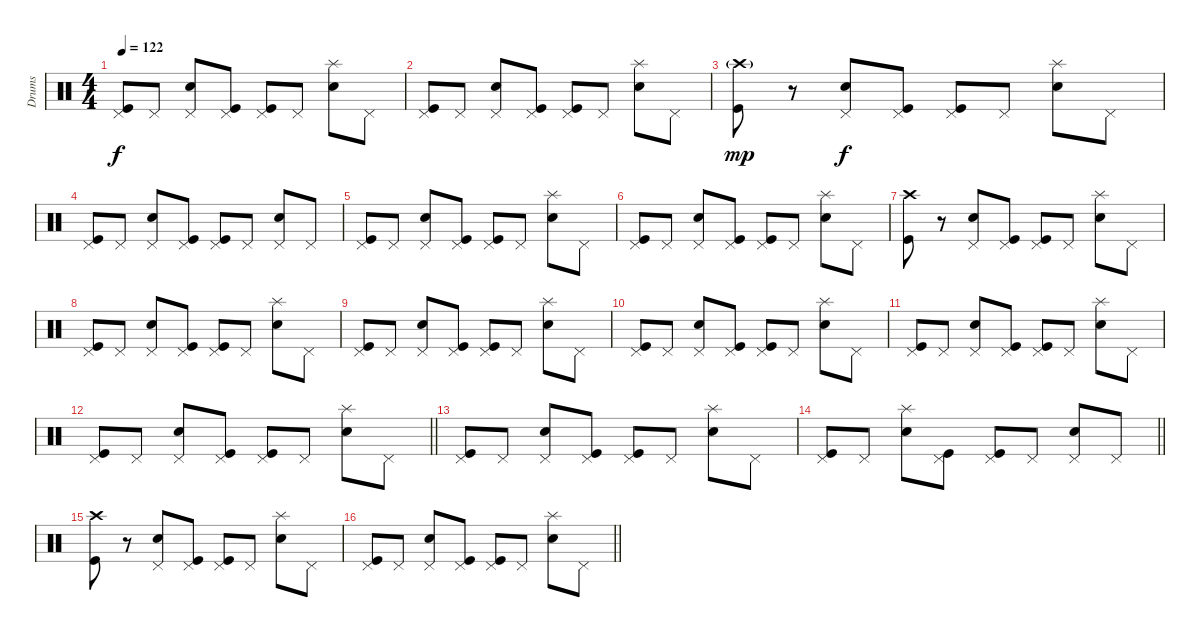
\track ("Drums" "Drums") {instrument percussion}
\staff {score}
\articulation defaults
\ts (4 4)
\tempo 122
\clef neutral
\ks c
("Pedal Hi-Hat (hit)" "Kick (hit)").8{dy f} "Pedal Hi-Hat (hit)".8 ("Pedal Hi-Hat (hit)" "Electric Snare (hit)").8 ("Pedal Hi-Hat (hit)" "Kick (hit)").8 ("Pedal Hi-Hat (hit)" "Kick (hit)").8 "Pedal Hi-Hat (hit)".8 ("Splash (hit)" "Electric Snare (hit)").8 "Pedal Hi-Hat (hit)".8 |
("Pedal Hi-Hat (hit)" "Kick (hit)").8 "Pedal Hi-Hat (hit)".8 ("Pedal Hi-Hat (hit)" "Electric Snare (hit)").8 ("Pedal Hi-Hat (hit)" "Kick (hit)").8 ("Pedal Hi-Hat (hit)" "Kick (hit)").8 "Pedal Hi-Hat (hit)".8 ("Splash (hit)" "Electric Snare (hit)").8 "Pedal Hi-Hat (hit)".8 |
("Crash high (hit)"{g} "Kick (hit)").8{dy mp} r.8 ("Pedal Hi-Hat (hit)" "Electric Snare (hit)").8{dy f} ("Pedal Hi-Hat (hit)" "Kick (hit)").8 ("Pedal Hi-Hat (hit)" "Kick (hit)").8 "Pedal Hi-Hat (hit)".8 ("Splash (hit)" "Electric Snare (hit)").8 "Pedal Hi-Hat (hit)".8 |
("Pedal Hi-Hat (hit)" "Kick (hit)").8 "Pedal Hi-Hat (hit)".8 ("Pedal Hi-Hat (hit)" "Electric Snare (hit)").8 ("Pedal Hi-Hat (hit)" "Kick (hit)").8 ("Pedal Hi-Hat (hit)" "Kick (hit)").8 "Pedal Hi-Hat (hit)".8 ("Pedal Hi-Hat (hit)" "Electric Snare (hit)").8 "Pedal Hi-Hat (hit)".8 |
("Pedal Hi-Hat (hit)" "Kick (hit)").8 "Pedal Hi-Hat (hit)".8 ("Pedal Hi-Hat (hit)" "Electric Snare (hit)").8 ("Pedal Hi-Hat (hit)" "Kick (hit)").8 ("Pedal Hi-Hat (hit)" "Kick (hit)").8 "Pedal Hi-Hat (hit)".8 ("Splash (hit)" "Electric Snare (hit)").8 "Pedal Hi-Hat (hit)".8 |
("Pedal Hi-Hat (hit)" "Kick (hit)").8 "Pedal Hi-Hat (hit)".8 ("Pedal Hi-Hat (hit)" "Electric Snare (hit)").8 ("Pedal Hi-Hat (hit)" "Kick (hit)").8 ("Pedal Hi-Hat (hit)" "Kick (hit)").8 "Pedal Hi-Hat (hit)".8 ("Splash (hit)" "Electric Snare (hit)").8 "Pedal Hi-Hat (hit)".8 |
("Crash high (hit)" "Kick (hit)").8 r.8 ("Pedal Hi-Hat (hit)" "Electric Snare (hit)").8 ("Pedal Hi-Hat (hit)" "Kick (hit)").8 ("Pedal Hi-Hat (hit)" "Kick (hit)").8 "Pedal Hi-Hat (hit)".8 ("Splash (hit)" "Electric Snare (hit)").8 "Pedal Hi-Hat (hit)".8 |
("Pedal Hi-Hat (hit)" "Kick (hit)").8 "Pedal Hi-Hat (hit)".8 ("Pedal Hi-Hat (hit)" "Electric Snare (hit)").8 ("Pedal Hi-Hat (hit)" "Kick (hit)").8 ("Pedal Hi-Hat (hit)" "Kick (hit)").8 "Pedal Hi-Hat (hit)".8 ("Splash (hit)" "Electric Snare (hit)").8 "Pedal Hi-Hat (hit)".8 |
("Pedal Hi-Hat (hit)" "Kick (hit)").8 "Pedal Hi-Hat (hit)".8 ("Pedal Hi-Hat (hit)" "Electric Snare (hit)").8 ("Pedal Hi-Hat (hit)" "Kick (hit)").8 ("Pedal Hi-Hat (hit)" "Kick (hit)").8 "Pedal Hi-Hat (hit)".8 ("Splash (hit)" "Electric Snare (hit)").8 "Pedal Hi-Hat (hit)".8 |
("Pedal Hi-Hat (hit)" "Kick (hit)").8 "Pedal Hi-Hat (hit)".8 ("Pedal Hi-Hat (hit)" "Electric Snare (hit)").8 ("Pedal Hi-Hat (hit)" "Kick (hit)").8 ("Pedal Hi-Hat (hit)" "Kick (hit)").8 "Pedal Hi-Hat (hit)".8 ("Splash (hit)" "Electric Snare (hit)").8 "Pedal Hi-Hat (hit)".8 |
("Pedal Hi-Hat (hit)" "Kick (hit)").8 "Pedal Hi-Hat (hit)".8 ("Pedal Hi-Hat (hit)" "Electric Snare (hit)").8 ("Pedal Hi-Hat (hit)" "Kick (hit)").8 ("Pedal Hi-Hat (hit)" "Kick (hit)").8 "Pedal Hi-Hat (hit)".8 ("Splash (hit)" "Electric Snare (hit)").8 "Pedal Hi-Hat (hit)".8 |
\barLineRight lightlight
("Pedal Hi-Hat (hit)" "Kick (hit)").8 "Pedal Hi-Hat (hit)".8 ("Pedal Hi-Hat (hit)" "Electric Snare (hit)").8 ("Pedal Hi-Hat (hit)" "Kick (hit)").8 ("Pedal Hi-Hat (hit)" "Kick (hit)").8 "Pedal Hi-Hat (hit)".8 ("Splash (hit)" "Electric Snare (hit)").8 "Pedal Hi-Hat (hit)".8 |
("Pedal Hi-Hat (hit)" "Kick (hit)").8 "Pedal Hi-Hat (hit)".8 ("Pedal Hi-Hat (hit)" "Electric Snare (hit)").8 ("Pedal Hi-Hat (hit)" "Kick (hit)").8 ("Pedal Hi-Hat (hit)" "Kick (hit)").8 "Pedal Hi-Hat (hit)".8 ("Splash (hit)" "Electric Snare (hit)").8 "Pedal Hi-Hat (hit)".8 |
\barLineRight lightlight
("Pedal Hi-Hat (hit)" "Kick (hit)").8 "Pedal Hi-Hat (hit)".8 ("Splash (hit)" "Electric Snare (hit)").8 ("Pedal Hi-Hat (hit)" "Kick (hit)").8 ("Pedal Hi-Hat (hit)" "Kick (hit)").8 "Pedal Hi-Hat (hit)".8 ("Pedal Hi-Hat (hit)" "Electric Snare (hit)").8 "Pedal Hi-Hat (hit)".8 |
("Crash high (hit)" "Kick (hit)").8 r.8 ("Pedal Hi-Hat (hit)" "Electric Snare (hit)").8 ("Pedal Hi-Hat (hit)" "Kick (hit)").8 ("Pedal Hi-Hat (hit)" "Kick (hit)").8 "Pedal Hi-Hat (hit)".8 ("Splash (hit)" "Electric Snare (hit)").8 "Pedal Hi-Hat (hit)".8 |
\barLineRight lightlight
("Pedal Hi-Hat (hit)" "Kick (hit)").8 "Pedal Hi-Hat (hit)".8 ("Pedal Hi-Hat (hit)" "Electric Snare (hit)").8 ("Pedal Hi-Hat (hit)" "Kick (hit)").8 ("Pedal Hi-Hat (hit)" "Kick (hit)").8 "Pedal Hi-Hat (hit)".8 ("Splash (hit)" "Electric Snare (hit)").8 "Pedal Hi-Hat (hit)".8
